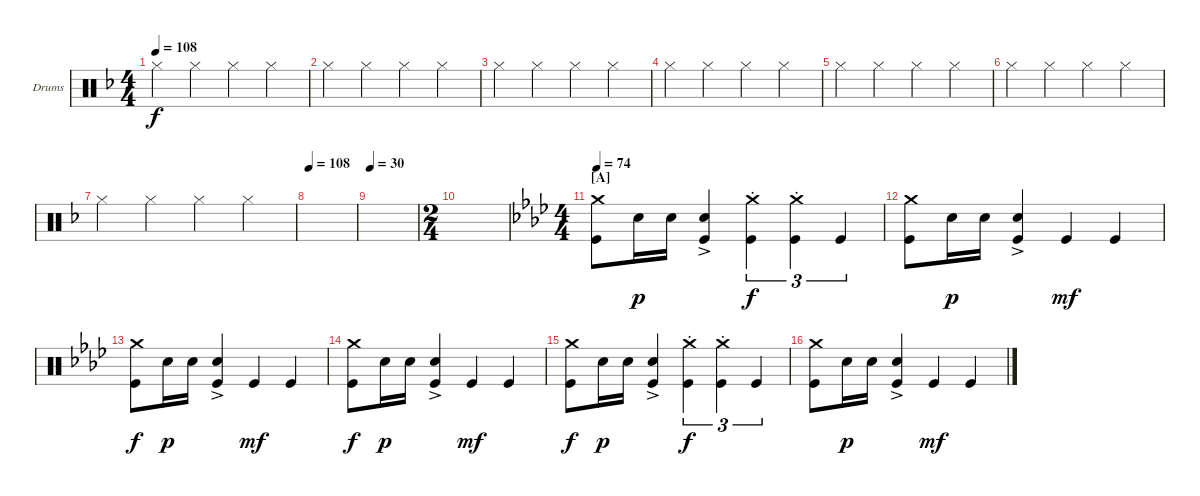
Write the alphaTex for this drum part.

\defaultSystemsLayout 4
\bracketExtendMode groupsimilarinstruments
\firstSystemTrackNameOrientation horizontal
\otherSystemsTrackNameOrientation horizontal
\track ("Drumkit" "Drums") {instrument percussion}
\staff {score}
\articulation defaults
\ts (4 4)
\tempo 108
\clef neutral
\ks dminor "Hi-Hat (closed)".4{dy f} "Hi-Hat (closed)".4 "Hi-Hat (closed)".4 "Hi-Hat (closed)".4
|
"Hi-Hat (closed)".4 "Hi-Hat (closed)".4 "Hi-Hat (closed)".4 "Hi-Hat (closed)".4 |
"Hi-Hat (closed)".4 "Hi-Hat (closed)".4 "Hi-Hat (closed)".4 "Hi-Hat (closed)".4 |
"Hi-Hat (closed)".4 "Hi-Hat (closed)".4 "Hi-Hat (closed)".4 "Hi-Hat (closed)".4 |
"Hi-Hat (closed)".4 "Hi-Hat (closed)".4 "Hi-Hat (closed)".4 "Hi-Hat (closed)".4 |
"Hi-Hat (closed)".4 "Hi-Hat (closed)".4 "Hi-Hat (closed)".4 "Hi-Hat (closed)".4 |
"Hi-Hat (closed)".4 "Hi-Hat (closed)".4 "Hi-Hat (closed)".4 "Hi-Hat (closed)".4 |
\tempo 108
|
\tempo 30
|
\ts (2 4)
|
\ts (4 4)
\section ("A" "")
\tempo 74
\ks ab
("Kick (hit)" "Crash medium (hit)").8 "Snare (hit) 2".16{dy p} "Snare (hit) 2".16 ("Kick (hit)"{ac} "Snare (hit) 2").4 ("Kick (hit)" "Crash medium (hit)"{st}).4{tu (3 2) dy f} ("Kick (hit)" "Crash medium (hit)"{st}).4{tu (3 2)} "Kick (hit)".4{tu (3 2)} |
("Kick (hit)" "Crash medium (hit)").8 "Snare (hit) 2".16{dy p} "Snare (hit) 2".16 ("Kick (hit)"{ac} "Snare (hit) 2").4 "Kick (hit)".4{dy mf} "Kick (hit)".4 |
("Kick (hit)" "Crash medium (hit)").8{dy f} "Snare (hit) 2".16{dy p} "Snare (hit) 2".16 ("Kick (hit)"{ac} "Snare (hit) 2").4 "Kick (hit)".4{dy mf} "Kick (hit)".4 |
("Kick (hit)" "Crash medium (hit)").8{dy f} "Snare (hit) 2".16{dy p} "Snare (hit) 2".16 ("Kick (hit)"{ac} "Snare (hit) 2").4 "Kick (hit)".4{dy mf} "Kick (hit)".4 |
("Kick (hit)" "Crash medium (hit)").8{dy f} "Snare (hit) 2".16{dy p} "Snare (hit) 2".16 ("Kick (hit)"{ac} "Snare (hit) 2").4 ("Kick (hit)" "Crash medium (hit)"{st}).4{tu (3 2) dy f} ("Kick (hit)" "Crash medium (hit)"{st}).4{tu (3 2)} "Kick (hit)".4{tu (3 2)} |
("Kick (hit)" "Crash medium (hit)").8 "Snare (hit) 2".16{dy p} "Snare (hit) 2".16 ("Kick (hit)"{ac} "Snare (hit) 2").4 "Kick (hit)".4{dy mf} "Kick (hit)".4
